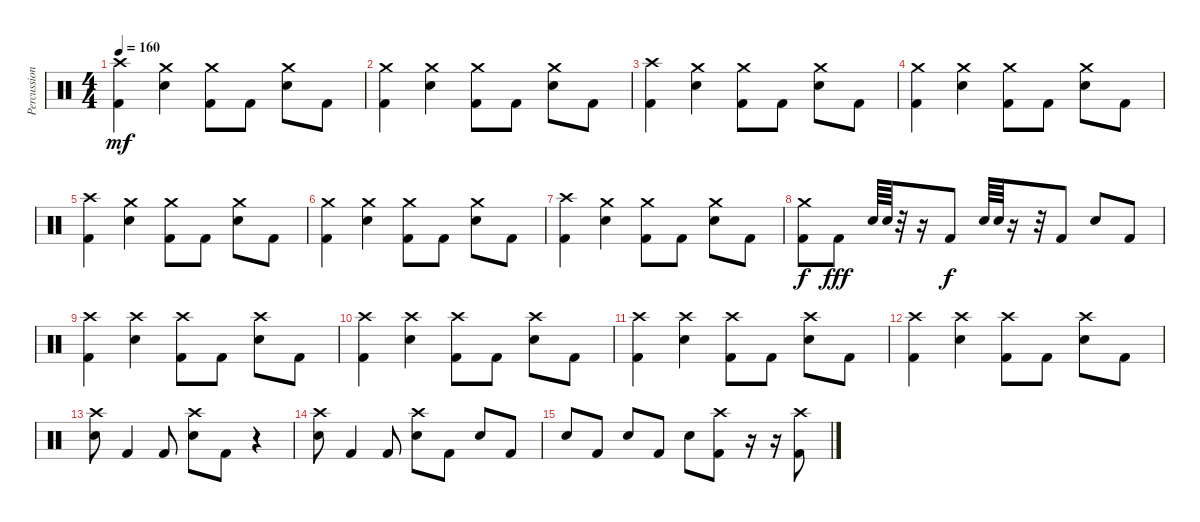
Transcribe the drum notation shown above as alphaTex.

\track ("Percussion" "Percussion") {instrument percussion}
\staff {score}
\articulation defaults
\ts (4 4)
\tempo 160
\clef neutral
\ks c
("Crash high (hit)" "Kick (hit) 2").4{dy mf} ("Crash medium (hit)" "Electric Snare (hit)").4 ("Crash medium (hit)" "Kick (hit) 2").8 "Kick (hit) 2".8 ("Crash medium (hit)" "Electric Snare (hit)").8 "Kick (hit) 2".8 |
("Crash medium (hit)" "Kick (hit) 2").4 ("Crash medium (hit)" "Electric Snare (hit)").4 ("Crash medium (hit)" "Kick (hit) 2").8 "Kick (hit) 2".8 ("Crash medium (hit)" "Electric Snare (hit)").8 "Kick (hit) 2".8 |
("Crash high (hit)" "Kick (hit) 2").4 ("Crash medium (hit)" "Electric Snare (hit)").4 ("Crash medium (hit)" "Kick (hit) 2").8 "Kick (hit) 2".8 ("Crash medium (hit)" "Electric Snare (hit)").8 "Kick (hit) 2".8 |
("Crash medium (hit)" "Kick (hit) 2").4 ("Crash medium (hit)" "Electric Snare (hit)").4 ("Crash medium (hit)" "Kick (hit) 2").8 "Kick (hit) 2".8 ("Crash medium (hit)" "Electric Snare (hit)").8 "Kick (hit) 2".8 |
("Crash high (hit)" "Kick (hit) 2").4 ("Crash medium (hit)" "Electric Snare (hit)").4 ("Crash medium (hit)" "Kick (hit) 2").8 "Kick (hit) 2".8 ("Crash medium (hit)" "Electric Snare (hit)").8 "Kick (hit) 2".8 |
("Crash medium (hit)" "Kick (hit) 2").4 ("Crash medium (hit)" "Electric Snare (hit)").4 ("Crash medium (hit)" "Kick (hit) 2").8 "Kick (hit) 2".8 ("Crash medium (hit)" "Electric Snare (hit)").8 "Kick (hit) 2".8 |
("Crash high (hit)" "Kick (hit) 2").4 ("Crash medium (hit)" "Electric Snare (hit)").4 ("Crash medium (hit)" "Kick (hit) 2").8 "Kick (hit) 2".8 ("Crash medium (hit)" "Electric Snare (hit)").8 "Kick (hit) 2".8 |
("Crash medium (hit)" "Kick (hit) 2").8{dy f} "Kick (hit) 2".8{dy fff} "Electric Snare (hit)".64 "Electric Snare (hit)".64 r.32 r.16 "Kick (hit) 2".8{dy f} "Electric Snare (hit)".64 "Electric Snare (hit)".64 r.16 r.32 "Kick (hit) 2".8 "Electric Snare (hit)".8 "Kick (hit) 2".8 |
("Crash high (hit)" "Kick (hit) 2").4 ("Crash high (hit)" "Electric Snare (hit)").4 ("Crash high (hit)" "Kick (hit) 2").8 "Kick (hit) 2".8 ("Crash high (hit)" "Electric Snare (hit)").8 "Kick (hit) 2".8 |
("Crash high (hit)" "Kick (hit) 2").4 ("Crash high (hit)" "Electric Snare (hit)").4 ("Crash high (hit)" "Kick (hit) 2").8 "Kick (hit) 2".8 ("Crash high (hit)" "Electric Snare (hit)").8 "Kick (hit) 2".8 |
("Crash high (hit)" "Kick (hit) 2").4 ("Crash high (hit)" "Electric Snare (hit)").4 ("Crash high (hit)" "Kick (hit) 2").8 "Kick (hit) 2".8 ("Crash high (hit)" "Electric Snare (hit)").8 "Kick (hit) 2".8 |
("Crash high (hit)" "Kick (hit) 2").4 ("Crash high (hit)" "Electric Snare (hit)").4 ("Crash high (hit)" "Kick (hit) 2").8 "Kick (hit) 2".8 ("Crash high (hit)" "Electric Snare (hit)").8 "Kick (hit) 2".8 |
("Crash high (hit)" "Electric Snare (hit)").8 "Kick (hit) 2".4 "Kick (hit) 2".8 ("Crash high (hit)" "Electric Snare (hit)").8 "Kick (hit) 2".8 r.4 |
("Crash high (hit)" "Electric Snare (hit)").8 "Kick (hit) 2".4 "Kick (hit) 2".8 ("Crash high (hit)" "Electric Snare (hit)").8 "Kick (hit) 2".8 "Electric Snare (hit)".8 "Kick (hit) 2".8 |
"Electric Snare (hit)".8 "Kick (hit) 2".8 "Electric Snare (hit)".8 "Kick (hit) 2".8 "Electric Snare (hit)".8 ("Crash high (hit)" "Kick (hit) 2").8 r.16 r.16 ("Crash high (hit)" "Kick (hit) 2").8
